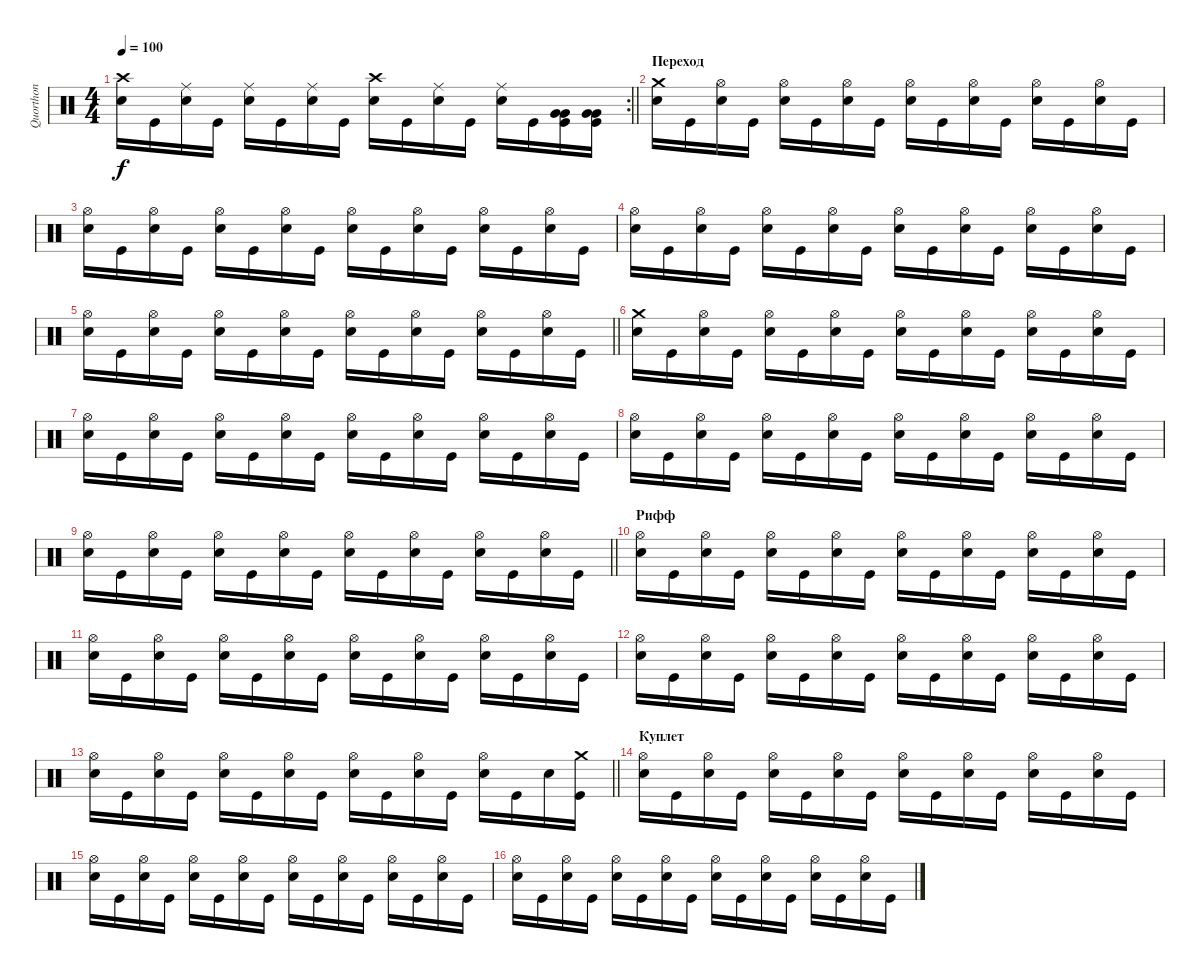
\track ("Quorthon" "Quorthon") {instrument percussion}
\staff {score}
\articulation defaults
\rc 2
\ts (4 4)
\tempo 100
\clef neutral
\barLineRight lightlight
\ks c
("Crash high (hit)" "Snare (hit) 2").16{dy f} "Kick (hit)".16 ("Ride (middle)" "Snare (hit) 2").16 "Kick (hit)".16 ("Ride (middle)" "Snare (hit) 2").16 "Kick (hit)".16 ("Ride (middle)" "Snare (hit) 2").16 "Kick (hit)".16 ("Crash high (hit)" "Snare (hit) 2").16 "Kick (hit)".16 ("Ride (middle)" "Snare (hit) 2").16 "Kick (hit)".16 ("Ride (middle)" "Snare (hit) 2").16 "Kick (hit)".16 ("Very Low Tom (hit)" "Very Low Tom (hit)" "Kick (hit)").16 ("Very Low Tom (hit)" "Very Low Tom (hit)" "Kick (hit)").16 |
\section ("" "Переход")
("Crash medium (hit)" "Snare (hit) 2").16 "Kick (hit)".16 ("Hi-Hat (open)" "Snare (hit) 2").16 "Kick (hit)".16 ("Hi-Hat (open)" "Snare (hit) 2").16 "Kick (hit)".16 ("Hi-Hat (open)" "Snare (hit) 2").16 "Kick (hit)".16 ("Hi-Hat (open)" "Snare (hit) 2").16 "Kick (hit)".16 ("Hi-Hat (open)" "Snare (hit) 2").16 "Kick (hit)".16 ("Hi-Hat (open)" "Snare (hit) 2").16 "Kick (hit)".16 ("Hi-Hat (open)" "Snare (hit) 2").16 "Kick (hit)".16 |
("Hi-Hat (open)" "Snare (hit) 2").16 "Kick (hit)".16 ("Hi-Hat (open)" "Snare (hit) 2").16 "Kick (hit)".16 ("Hi-Hat (open)" "Snare (hit) 2").16 "Kick (hit)".16 ("Hi-Hat (open)" "Snare (hit) 2").16 "Kick (hit)".16 ("Hi-Hat (open)" "Snare (hit) 2").16 "Kick (hit)".16 ("Hi-Hat (open)" "Snare (hit) 2").16 "Kick (hit)".16 ("Hi-Hat (open)" "Snare (hit) 2").16 "Kick (hit)".16 ("Hi-Hat (open)" "Snare (hit) 2").16 "Kick (hit)".16 |
("Hi-Hat (open)" "Snare (hit) 2").16 "Kick (hit)".16 ("Hi-Hat (open)" "Snare (hit) 2").16 "Kick (hit)".16 ("Hi-Hat (open)" "Snare (hit) 2").16 "Kick (hit)".16 ("Hi-Hat (open)" "Snare (hit) 2").16 "Kick (hit)".16 ("Hi-Hat (open)" "Snare (hit) 2").16 "Kick (hit)".16 ("Hi-Hat (open)" "Snare (hit) 2").16 "Kick (hit)".16 ("Hi-Hat (open)" "Snare (hit) 2").16 "Kick (hit)".16 ("Hi-Hat (open)" "Snare (hit) 2").16 "Kick (hit)".16 |
\barLineRight lightlight
("Hi-Hat (open)" "Snare (hit) 2").16 "Kick (hit)".16 ("Hi-Hat (open)" "Snare (hit) 2").16 "Kick (hit)".16 ("Hi-Hat (open)" "Snare (hit) 2").16 "Kick (hit)".16 ("Hi-Hat (open)" "Snare (hit) 2").16 "Kick (hit)".16 ("Hi-Hat (open)" "Snare (hit) 2").16 "Kick (hit)".16 ("Hi-Hat (open)" "Snare (hit) 2").16 "Kick (hit)".16 ("Hi-Hat (open)" "Snare (hit) 2").16 "Kick (hit)".16 ("Hi-Hat (open)" "Snare (hit) 2").16 "Kick (hit)".16 |
("Crash medium (hit)" "Snare (hit) 2").16 "Kick (hit)".16 ("Hi-Hat (open)" "Snare (hit) 2").16 "Kick (hit)".16 ("Hi-Hat (open)" "Snare (hit) 2").16 "Kick (hit)".16 ("Hi-Hat (open)" "Snare (hit) 2").16 "Kick (hit)".16 ("Hi-Hat (open)" "Snare (hit) 2").16 "Kick (hit)".16 ("Hi-Hat (open)" "Snare (hit) 2").16 "Kick (hit)".16 ("Hi-Hat (open)" "Snare (hit) 2").16 "Kick (hit)".16 ("Hi-Hat (open)" "Snare (hit) 2").16 "Kick (hit)".16 |
("Hi-Hat (open)" "Snare (hit) 2").16 "Kick (hit)".16 ("Hi-Hat (open)" "Snare (hit) 2").16 "Kick (hit)".16 ("Hi-Hat (open)" "Snare (hit) 2").16 "Kick (hit)".16 ("Hi-Hat (open)" "Snare (hit) 2").16 "Kick (hit)".16 ("Hi-Hat (open)" "Snare (hit) 2").16 "Kick (hit)".16 ("Hi-Hat (open)" "Snare (hit) 2").16 "Kick (hit)".16 ("Hi-Hat (open)" "Snare (hit) 2").16 "Kick (hit)".16 ("Hi-Hat (open)" "Snare (hit) 2").16 "Kick (hit)".16 |
("Hi-Hat (open)" "Snare (hit) 2").16 "Kick (hit)".16 ("Hi-Hat (open)" "Snare (hit) 2").16 "Kick (hit)".16 ("Hi-Hat (open)" "Snare (hit) 2").16 "Kick (hit)".16 ("Hi-Hat (open)" "Snare (hit) 2").16 "Kick (hit)".16 ("Hi-Hat (open)" "Snare (hit) 2").16 "Kick (hit)".16 ("Hi-Hat (open)" "Snare (hit) 2").16 "Kick (hit)".16 ("Hi-Hat (open)" "Snare (hit) 2").16 "Kick (hit)".16 ("Hi-Hat (open)" "Snare (hit) 2").16 "Kick (hit)".16 |
\barLineRight lightlight
("Hi-Hat (open)" "Snare (hit) 2").16 "Kick (hit)".16 ("Hi-Hat (open)" "Snare (hit) 2").16 "Kick (hit)".16 ("Hi-Hat (open)" "Snare (hit) 2").16 "Kick (hit)".16 ("Hi-Hat (open)" "Snare (hit) 2").16 "Kick (hit)".16 ("Hi-Hat (open)" "Snare (hit) 2").16 "Kick (hit)".16 ("Hi-Hat (open)" "Snare (hit) 2").16 "Kick (hit)".16 ("Hi-Hat (open)" "Snare (hit) 2").16 "Kick (hit)".16 ("Hi-Hat (open)" "Snare (hit) 2").16 "Kick (hit)".16 |
\section ("" "Рифф")
("Hi-Hat (open)" "Snare (hit) 2").16 "Kick (hit)".16 ("Hi-Hat (open)" "Snare (hit) 2").16 "Kick (hit)".16 ("Hi-Hat (open)" "Snare (hit) 2").16 "Kick (hit)".16 ("Hi-Hat (open)" "Snare (hit) 2").16 "Kick (hit)".16 ("Hi-Hat (open)" "Snare (hit) 2").16 "Kick (hit)".16 ("Hi-Hat (open)" "Snare (hit) 2").16 "Kick (hit)".16 ("Hi-Hat (open)" "Snare (hit) 2").16 "Kick (hit)".16 ("Hi-Hat (open)" "Snare (hit) 2").16 "Kick (hit)".16 |
("Hi-Hat (open)" "Snare (hit) 2").16 "Kick (hit)".16 ("Hi-Hat (open)" "Snare (hit) 2").16 "Kick (hit)".16 ("Hi-Hat (open)" "Snare (hit) 2").16 "Kick (hit)".16 ("Hi-Hat (open)" "Snare (hit) 2").16 "Kick (hit)".16 ("Hi-Hat (open)" "Snare (hit) 2").16 "Kick (hit)".16 ("Hi-Hat (open)" "Snare (hit) 2").16 "Kick (hit)".16 ("Hi-Hat (open)" "Snare (hit) 2").16 "Kick (hit)".16 ("Hi-Hat (open)" "Snare (hit) 2").16 "Kick (hit)".16 |
("Hi-Hat (open)" "Snare (hit) 2").16 "Kick (hit)".16 ("Hi-Hat (open)" "Snare (hit) 2").16 "Kick (hit)".16 ("Hi-Hat (open)" "Snare (hit) 2").16 "Kick (hit)".16 ("Hi-Hat (open)" "Snare (hit) 2").16 "Kick (hit)".16 ("Hi-Hat (open)" "Snare (hit) 2").16 "Kick (hit)".16 ("Hi-Hat (open)" "Snare (hit) 2").16 "Kick (hit)".16 ("Hi-Hat (open)" "Snare (hit) 2").16 "Kick (hit)".16 ("Hi-Hat (open)" "Snare (hit) 2").16 "Kick (hit)".16 |
\barLineRight lightlight
("Hi-Hat (open)" "Snare (hit) 2").16 "Kick (hit)".16 ("Hi-Hat (open)" "Snare (hit) 2").16 "Kick (hit)".16 ("Hi-Hat (open)" "Snare (hit) 2").16 "Kick (hit)".16 ("Hi-Hat (open)" "Snare (hit) 2").16 "Kick (hit)".16 ("Hi-Hat (open)" "Snare (hit) 2").16 "Kick (hit)".16 ("Hi-Hat (open)" "Snare (hit) 2").16 "Kick (hit)".16 ("Hi-Hat (open)" "Snare (hit) 2").16 "Kick (hit)".16 "Snare (hit) 2".16 ("Crash medium (hit)" "Kick (hit)").16 |
\section ("" "Куплет")
("Hi-Hat (open)" "Snare (hit) 2").16 "Kick (hit)".16 ("Hi-Hat (open)" "Snare (hit) 2").16 "Kick (hit)".16 ("Hi-Hat (open)" "Snare (hit) 2").16 "Kick (hit)".16 ("Hi-Hat (open)" "Snare (hit) 2").16 "Kick (hit)".16 ("Hi-Hat (open)" "Snare (hit) 2").16 "Kick (hit)".16 ("Hi-Hat (open)" "Snare (hit) 2").16 "Kick (hit)".16 ("Hi-Hat (open)" "Snare (hit) 2").16 "Kick (hit)".16 ("Hi-Hat (open)" "Snare (hit) 2").16 "Kick (hit)".16 |
("Hi-Hat (open)" "Snare (hit) 2").16 "Kick (hit)".16 ("Hi-Hat (open)" "Snare (hit) 2").16 "Kick (hit)".16 ("Hi-Hat (open)" "Snare (hit) 2").16 "Kick (hit)".16 ("Hi-Hat (open)" "Snare (hit) 2").16 "Kick (hit)".16 ("Hi-Hat (open)" "Snare (hit) 2").16 "Kick (hit)".16 ("Hi-Hat (open)" "Snare (hit) 2").16 "Kick (hit)".16 ("Hi-Hat (open)" "Snare (hit) 2").16 "Kick (hit)".16 ("Hi-Hat (open)" "Snare (hit) 2").16 "Kick (hit)".16 |
("Hi-Hat (open)" "Snare (hit) 2").16 "Kick (hit)".16 ("Hi-Hat (open)" "Snare (hit) 2").16 "Kick (hit)".16 ("Hi-Hat (open)" "Snare (hit) 2").16 "Kick (hit)".16 ("Hi-Hat (open)" "Snare (hit) 2").16 "Kick (hit)".16 ("Hi-Hat (open)" "Snare (hit) 2").16 "Kick (hit)".16 ("Hi-Hat (open)" "Snare (hit) 2").16 "Kick (hit)".16 ("Hi-Hat (open)" "Snare (hit) 2").16 "Kick (hit)".16 ("Hi-Hat (open)" "Snare (hit) 2").16 "Kick (hit)".16
